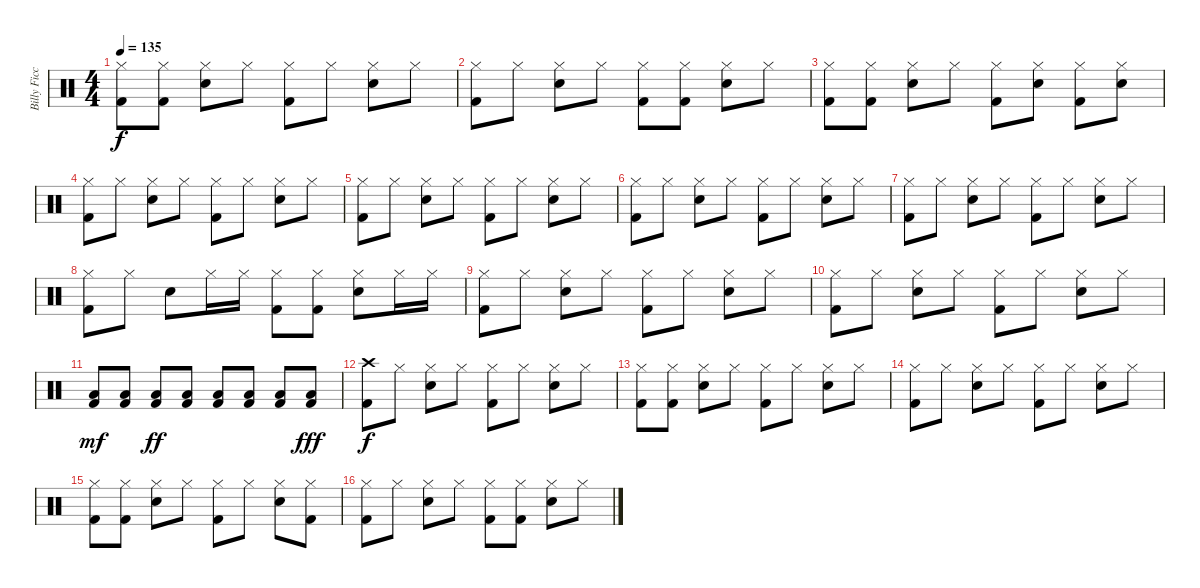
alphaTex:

\track ("Billy Ficca" "Billy Ficc") {instrument percussion}
\staff {score}
\articulation defaults
\ts (4 4)
\tempo 135
\clef neutral
\ks c
("Hi-Hat (closed)" "Kick (hit) 2").8{dy f} ("Hi-Hat (closed)" "Kick (hit) 2").8 ("Hi-Hat (closed)" "Electric Snare (hit)").8 "Hi-Hat (closed)".8 ("Hi-Hat (closed)" "Kick (hit) 2").8 "Hi-Hat (closed)".8 ("Hi-Hat (closed)" "Electric Snare (hit)").8 "Hi-Hat (closed)".8 |
("Kick (hit) 2" "Hi-Hat (closed)").8 "Hi-Hat (closed)".8 ("Electric Snare (hit)" "Hi-Hat (closed)").8 "Hi-Hat (closed)".8 ("Kick (hit) 2" "Hi-Hat (closed)").8 ("Kick (hit) 2" "Hi-Hat (closed)").8 ("Electric Snare (hit)" "Hi-Hat (closed)").8 "Hi-Hat (closed)".8 |
("Kick (hit) 2" "Hi-Hat (closed)").8 ("Kick (hit) 2" "Hi-Hat (closed)").8 ("Electric Snare (hit)" "Hi-Hat (closed)").8 "Hi-Hat (closed)".8 ("Kick (hit) 2" "Hi-Hat (closed)").8 ("Electric Snare (hit)" "Hi-Hat (closed)").8 ("Kick (hit) 2" "Hi-Hat (closed)").8 ("Electric Snare (hit)" "Hi-Hat (closed)").8 |
("Kick (hit) 2" "Hi-Hat (closed)").8 "Hi-Hat (closed)".8 ("Electric Snare (hit)" "Hi-Hat (closed)").8 "Hi-Hat (closed)".8 ("Kick (hit) 2" "Hi-Hat (closed)").8 "Hi-Hat (closed)".8 ("Electric Snare (hit)" "Hi-Hat (closed)").8 "Hi-Hat (closed)".8 |
("Hi-Hat (closed)" "Kick (hit) 2").8 "Hi-Hat (closed)".8 ("Electric Snare (hit)" "Hi-Hat (closed)").8 "Hi-Hat (closed)".8 ("Hi-Hat (closed)" "Kick (hit) 2").8 "Hi-Hat (closed)".8 ("Hi-Hat (closed)" "Electric Snare (hit)").8 "Hi-Hat (closed)".8 |
("Kick (hit) 2" "Hi-Hat (closed)").8 "Hi-Hat (closed)".8 ("Electric Snare (hit)" "Hi-Hat (closed)").8 "Hi-Hat (closed)".8 ("Kick (hit) 2" "Hi-Hat (closed)").8 "Hi-Hat (closed)".8 ("Electric Snare (hit)" "Hi-Hat (closed)").8 "Hi-Hat (closed)".8 |
("Kick (hit) 2" "Hi-Hat (closed)").8 "Hi-Hat (closed)".8 ("Electric Snare (hit)" "Hi-Hat (closed)").8 "Hi-Hat (closed)".8 ("Kick (hit) 2" "Hi-Hat (closed)").8 "Hi-Hat (closed)".8 ("Electric Snare (hit)" "Hi-Hat (closed)").8 "Hi-Hat (closed)".8 |
("Hi-Hat (closed)" "Kick (hit) 2").8 "Hi-Hat (closed)".8 "Electric Snare (hit)".8 "Hi-Hat (closed)".16 "Hi-Hat (closed)".16 ("Hi-Hat (closed)" "Kick (hit) 2").8 ("Hi-Hat (closed)" "Kick (hit) 2").8 ("Hi-Hat (closed)" "Electric Snare (hit)").8 "Hi-Hat (closed)".16 "Hi-Hat (closed)".16 |
("Kick (hit) 2" "Hi-Hat (closed)").8 "Hi-Hat (closed)".8 ("Electric Snare (hit)" "Hi-Hat (closed)").8 "Hi-Hat (closed)".8 ("Kick (hit) 2" "Hi-Hat (closed)").8 "Hi-Hat (closed)".8 ("Electric Snare (hit)" "Hi-Hat (closed)").8 "Hi-Hat (closed)".8 |
("Hi-Hat (closed)" "Kick (hit) 2").8 "Hi-Hat (closed)".8 ("Hi-Hat (closed)" "Electric Snare (hit)").8 "Hi-Hat (closed)".8 ("Hi-Hat (closed)" "Kick (hit) 2").8 "Hi-Hat (closed)".8 ("Hi-Hat (closed)" "Electric Snare (hit)").8 "Hi-Hat (closed)".8 |
("Low Floor Tom (hit)" "Kick (hit) 2").8{dy mf} ("Low Floor Tom (hit)" "Kick (hit) 2").8 ("Low Floor Tom (hit)" "Kick (hit) 2").8{dy ff} ("Low Floor Tom (hit)" "Kick (hit) 2").8 ("Low Floor Tom (hit)" "Kick (hit) 2").8 ("Low Floor Tom (hit)" "Kick (hit) 2").8 ("Low Floor Tom (hit)" "Kick (hit) 2").8 ("Low Floor Tom (hit)" "Kick (hit) 2").8{dy fff} |
("Crash high (hit)" "Kick (hit) 2").8{dy f} "Hi-Hat (closed)".8 ("Electric Snare (hit)" "Hi-Hat (closed)").8 "Hi-Hat (closed)".8 ("Kick (hit) 2" "Hi-Hat (closed)").8 "Hi-Hat (closed)".8 ("Electric Snare (hit)" "Hi-Hat (closed)").8 "Hi-Hat (closed)".8 |
("Kick (hit) 2" "Hi-Hat (closed)").8 ("Hi-Hat (closed)" "Kick (hit) 2").8 ("Electric Snare (hit)" "Hi-Hat (closed)").8 "Hi-Hat (closed)".8 ("Kick (hit) 2" "Hi-Hat (closed)").8 "Hi-Hat (closed)".8 ("Electric Snare (hit)" "Hi-Hat (closed)").8 "Hi-Hat (closed)".8 |
("Kick (hit) 2" "Hi-Hat (closed)").8 "Hi-Hat (closed)".8 ("Electric Snare (hit)" "Hi-Hat (closed)").8 "Hi-Hat (closed)".8 ("Kick (hit) 2" "Hi-Hat (closed)").8 "Hi-Hat (closed)".8 ("Electric Snare (hit)" "Hi-Hat (closed)").8 "Hi-Hat (closed)".8 |
("Kick (hit) 2" "Hi-Hat (closed)").8 ("Hi-Hat (closed)" "Kick (hit) 2").8 ("Electric Snare (hit)" "Hi-Hat (closed)").8 "Hi-Hat (closed)".8 ("Kick (hit) 2" "Hi-Hat (closed)").8 "Hi-Hat (closed)".8 ("Electric Snare (hit)" "Hi-Hat (closed)").8 ("Hi-Hat (closed)" "Kick (hit) 2").8 |
("Kick (hit) 2" "Hi-Hat (closed)").8 "Hi-Hat (closed)".8 ("Electric Snare (hit)" "Hi-Hat (closed)").8 "Hi-Hat (closed)".8 ("Kick (hit) 2" "Hi-Hat (closed)").8 ("Hi-Hat (closed)" "Kick (hit) 2").8 ("Electric Snare (hit)" "Hi-Hat (closed)").8 "Hi-Hat (closed)".8
